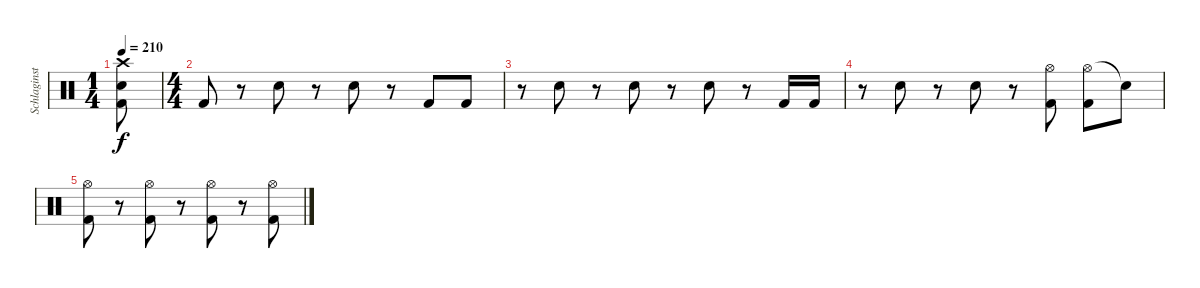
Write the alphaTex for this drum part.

\track ("Schlaginstrumente - Auswahl" "Schlaginst") {instrument percussion}
\staff {score}
\articulation defaults
\ts (1 4)
\tempo 210
\clef neutral
\ks c
("Crash high (hit)" "Snare (hit) 2" "Kick (hit) 2").8{dy f} |
\ts (4 4)
"Kick (hit) 2".8 r.8 "Snare (hit) 2".8 r.8 "Snare (hit) 2".8 r.8 "Kick (hit) 2".8 "Kick (hit) 2".8 |
r.8 "Snare (hit) 2".8 r.8 "Snare (hit) 2".8 r.8 "Snare (hit) 2".8 r.8 "Kick (hit) 2".16 "Kick (hit) 2".16 |
r.8 "Snare (hit) 2".8 r.8 "Snare (hit) 2".8 r.8 ("Hi-Hat (open)" "Kick (hit) 2").8 ("Hi-Hat (open)" "Kick (hit) 2").8 "Snare (hit)"{t}.8 |
("Hi-Hat (open)" "Kick (hit) 2").8 r.8 ("Hi-Hat (open)" "Kick (hit) 2").8 r.8 ("Hi-Hat (open)" "Kick (hit) 2").8 r.8 ("Hi-Hat (open)" "Kick (hit) 2").8
